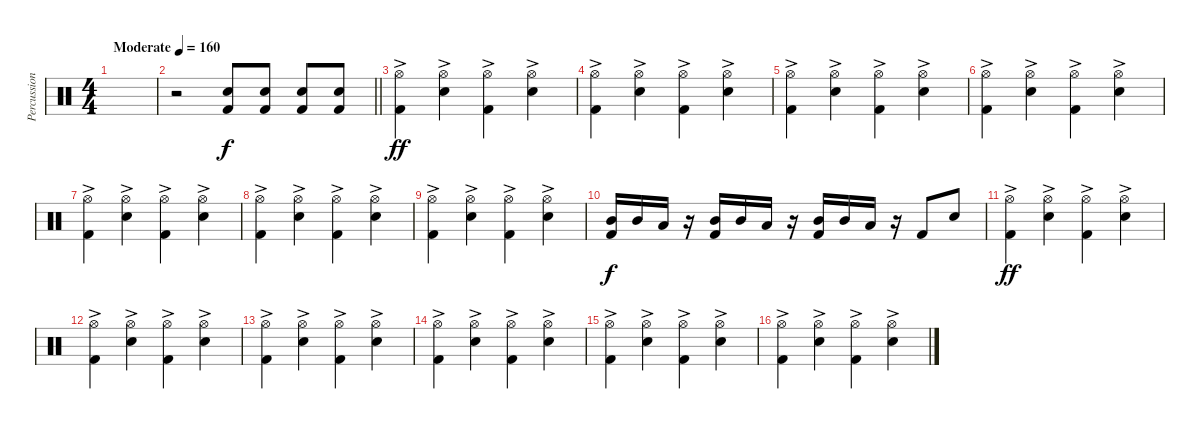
\track ("Percussion" "Percussion") {instrument percussion}
\staff {score}
\articulation defaults
\ts (4 4)
\tempo (160 "Moderate")
\clef neutral
\ks c
|
\barLineRight lightlight
r.2 ("Snare (hit) 2" "Kick (hit) 2").8 ("Snare (hit) 2" "Kick (hit) 2").8 ("Snare (hit) 2" "Kick (hit) 2").8 ("Snare (hit) 2" "Kick (hit) 2").8 |
("Hi-Hat (open)"{ac} "Kick (hit) 2").4{dy ff} ("Hi-Hat (open)"{ac} "Snare (hit) 2").4 ("Hi-Hat (open)"{ac} "Kick (hit) 2").4 ("Hi-Hat (open)"{ac} "Snare (hit) 2").4 |
("Hi-Hat (open)"{ac} "Kick (hit) 2").4 ("Hi-Hat (open)"{ac} "Snare (hit) 2").4 ("Hi-Hat (open)"{ac} "Kick (hit) 2").4 ("Hi-Hat (open)"{ac} "Snare (hit) 2").4 |
("Hi-Hat (open)"{ac} "Kick (hit) 2").4 ("Hi-Hat (open)"{ac} "Snare (hit) 2").4 ("Hi-Hat (open)"{ac} "Kick (hit) 2").4 ("Hi-Hat (open)"{ac} "Snare (hit) 2").4 |
("Hi-Hat (open)"{ac} "Kick (hit) 2").4 ("Hi-Hat (open)"{ac} "Snare (hit) 2").4 ("Hi-Hat (open)"{ac} "Kick (hit) 2").4 ("Hi-Hat (open)"{ac} "Snare (hit) 2").4 |
("Hi-Hat (open)"{ac} "Kick (hit) 2").4 ("Hi-Hat (open)"{ac} "Snare (hit) 2").4 ("Hi-Hat (open)"{ac} "Kick (hit) 2").4 ("Hi-Hat (open)"{ac} "Snare (hit) 2").4 |
("Hi-Hat (open)"{ac} "Kick (hit) 2").4 ("Hi-Hat (open)"{ac} "Snare (hit) 2").4 ("Hi-Hat (open)"{ac} "Kick (hit) 2").4 ("Hi-Hat (open)"{ac} "Snare (hit) 2").4 |
("Hi-Hat (open)"{ac} "Kick (hit) 2").4 ("Hi-Hat (open)"{ac} "Snare (hit) 2").4 ("Hi-Hat (open)"{ac} "Kick (hit) 2").4 ("Hi-Hat (open)"{ac} "Snare (hit) 2").4 |
("Mid Tom (hit)" "Kick (hit) 2").16{dy f} "Mid Tom (hit)".16 "Low Tom (hit)".16 r.16 ("Mid Tom (hit)" "Kick (hit) 2").16 "Mid Tom (hit)".16 "Low Tom (hit)".16 r.16 ("Mid Tom (hit)" "Kick (hit) 2").16 "Mid Tom (hit)".16 "Low Tom (hit)".16 r.16 "Kick (hit) 2".8 "Snare (hit) 2".8 |
("Hi-Hat (open)"{ac} "Kick (hit) 2").4{dy ff} ("Hi-Hat (open)"{ac} "Snare (hit) 2").4 ("Hi-Hat (open)"{ac} "Kick (hit) 2").4 ("Hi-Hat (open)"{ac} "Snare (hit) 2").4 |
("Hi-Hat (open)"{ac} "Kick (hit) 2").4 ("Hi-Hat (open)"{ac} "Snare (hit) 2").4 ("Hi-Hat (open)"{ac} "Kick (hit) 2").4 ("Hi-Hat (open)"{ac} "Snare (hit) 2").4 |
("Hi-Hat (open)"{ac} "Kick (hit) 2").4 ("Hi-Hat (open)"{ac} "Snare (hit) 2").4 ("Hi-Hat (open)"{ac} "Kick (hit) 2").4 ("Hi-Hat (open)"{ac} "Snare (hit) 2").4 |
("Hi-Hat (open)"{ac} "Kick (hit) 2").4 ("Hi-Hat (open)"{ac} "Snare (hit) 2").4 ("Hi-Hat (open)"{ac} "Kick (hit) 2").4 ("Hi-Hat (open)"{ac} "Snare (hit) 2").4 |
("Hi-Hat (open)"{ac} "Kick (hit) 2").4 ("Hi-Hat (open)"{ac} "Snare (hit) 2").4 ("Hi-Hat (open)"{ac} "Kick (hit) 2").4 ("Hi-Hat (open)"{ac} "Snare (hit) 2").4 |
("Hi-Hat (open)"{ac} "Kick (hit) 2").4 ("Hi-Hat (open)"{ac} "Snare (hit) 2").4 ("Hi-Hat (open)"{ac} "Kick (hit) 2").4 ("Hi-Hat (open)"{ac} "Snare (hit) 2").4
